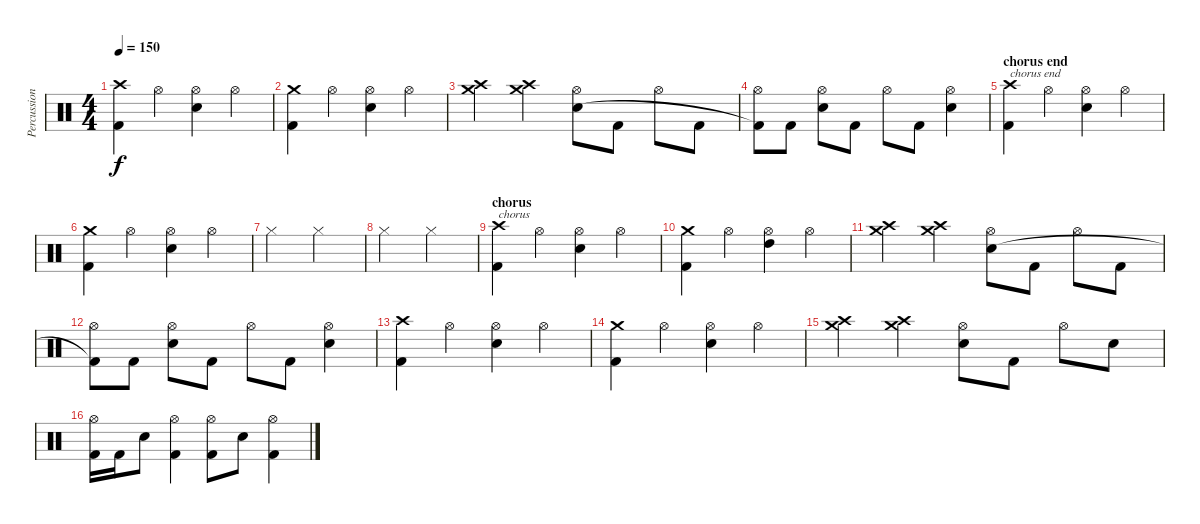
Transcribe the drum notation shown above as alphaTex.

\track ("Percussion" "Percussion") {instrument percussion}
\staff {score}
\articulation defaults
\ts (4 4)
\tempo 150
\clef neutral
\ks c
("Crash high (hit)" "Kick (hit) 2").4{dy f} "Hi-Hat (open)".4 ("Hi-Hat (open)" "Snare (hit) 2").4 "Hi-Hat (open)".4 |
("Crash medium (hit)" "Kick (hit) 2").4 "Hi-Hat (open)".4 ("Hi-Hat (open)" "Snare (hit) 2").4 "Hi-Hat (open)".4 |
("Crash medium (hit)" "Crash high (hit)").4 ("Crash medium (hit)" "Crash high (hit)").4 ("Hi-Hat (open)" "Snare (hit) 2").8 "Kick (hit) 2".8 "Hi-Hat (open)".8 "Kick (hit) 2".8 |
("Hi-Hat (open)" "Kick (hit) 2"{t}).8 "Kick (hit) 2".8 ("Hi-Hat (open)" "Snare (hit) 2").8 "Kick (hit) 2".8 "Hi-Hat (open)".8 "Kick (hit) 2".8 ("Hi-Hat (open)" "Snare (hit) 2").4 |
\section ("" "chorus end")
("Crash high (hit)" "Kick (hit) 2").4{txt "chorus end"} "Hi-Hat (open)".4 ("Hi-Hat (open)" "Snare (hit) 2").4 "Hi-Hat (open)".4 |
("Crash medium (hit)" "Kick (hit) 2").4 "Hi-Hat (open)".4 ("Hi-Hat (open)" "Snare (hit) 2").4 "Hi-Hat (open)".4 |
"Hi-Hat (closed)".2 "Hi-Hat (closed)".2 |
"Hi-Hat (closed)".2 "Hi-Hat (closed)".2 |
\section ("" "chorus")
("Crash high (hit)" "Kick (hit) 2").4{txt "chorus"} "Hi-Hat (open)".4 ("Hi-Hat (open)" "Snare (hit) 2").4 "Hi-Hat (open)".4 |
("Crash medium (hit)" "Kick (hit) 2").4 "Hi-Hat (open)".4 ("Hi-Hat (open)" "High Tom (hit)").4 "Hi-Hat (open)".4 |
("Crash medium (hit)" "Crash high (hit)").4 ("Crash medium (hit)" "Crash high (hit)").4 ("Hi-Hat (open)" "Snare (hit) 2").8 "Kick (hit) 2".8 "Hi-Hat (open)".8 "Kick (hit) 2".8 |
("Hi-Hat (open)" "Kick (hit) 2"{t}).8 "Kick (hit) 2".8 ("Hi-Hat (open)" "Snare (hit) 2").8 "Kick (hit) 2".8 "Hi-Hat (open)".8 "Kick (hit) 2".8 ("Hi-Hat (open)" "Snare (hit) 2").4 |
("Crash high (hit)" "Kick (hit) 2").4 "Hi-Hat (open)".4 ("Hi-Hat (open)" "Snare (hit) 2").4 "Hi-Hat (open)".4 |
("Crash medium (hit)" "Kick (hit) 2").4 "Hi-Hat (open)".4 ("Hi-Hat (open)" "Snare (hit) 2").4 "Hi-Hat (open)".4 |
("Crash medium (hit)" "Crash high (hit)").4 ("Crash medium (hit)" "Crash high (hit)").4 ("Hi-Hat (open)" "Snare (hit) 2").8 "Kick (hit) 2".8 "Hi-Hat (open)".8 "Snare (hit) 2".8 |
("Hi-Hat (open)" "Kick (hit) 2").16 "Kick (hit) 2".16 "Snare (hit) 2".8 ("Hi-Hat (open)" "Kick (hit) 2").4 ("Hi-Hat (open)" "Kick (hit) 2").8 "Snare (hit) 2".8 ("Hi-Hat (open)" "Kick (hit) 2").4
